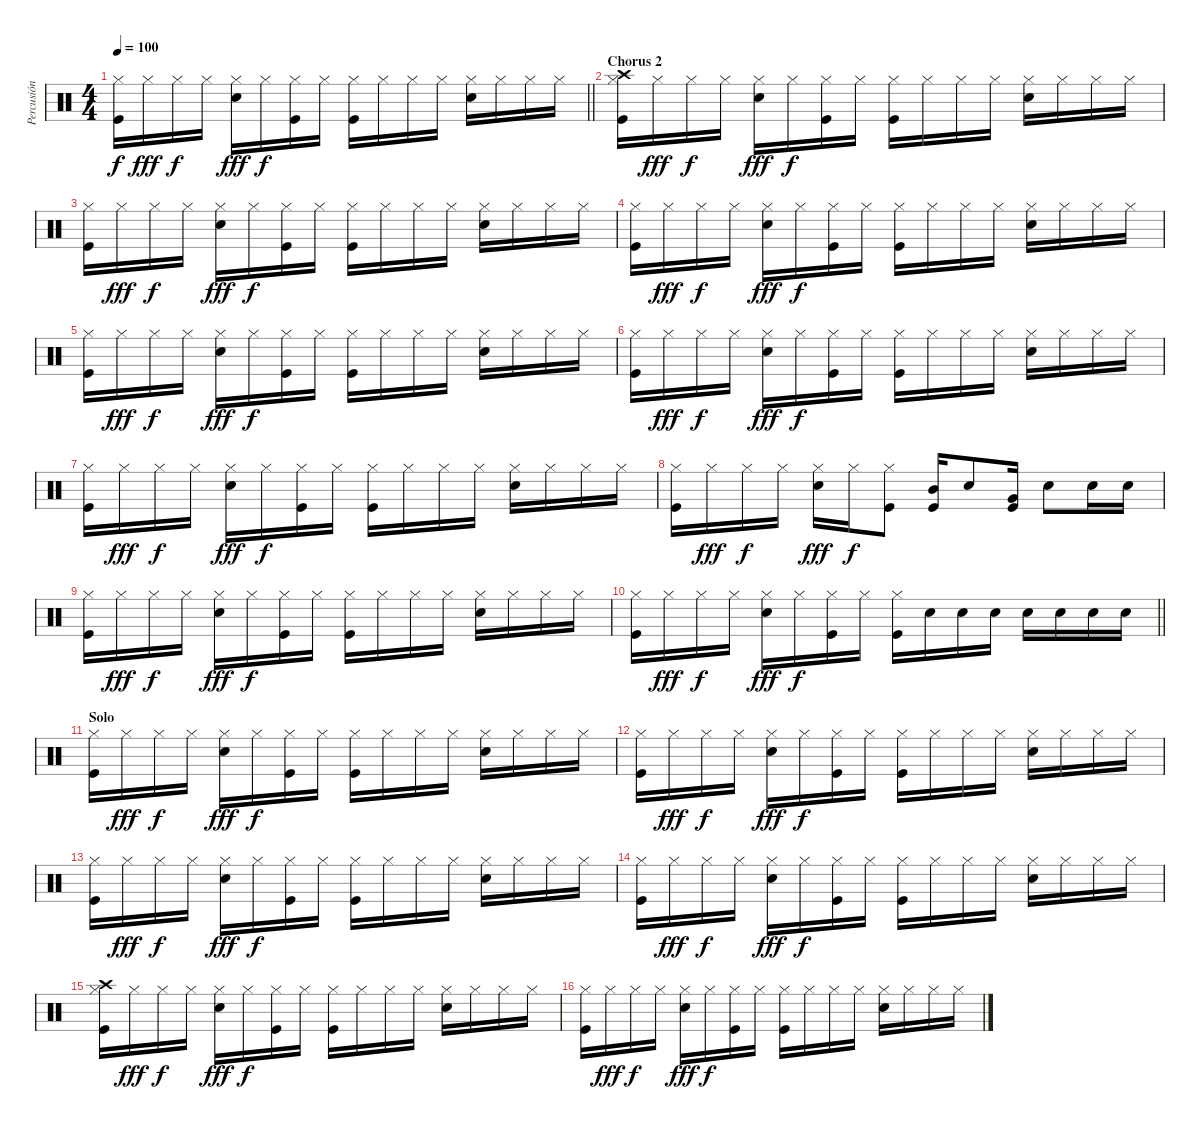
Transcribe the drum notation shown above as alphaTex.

\track ("Percusión" "Percusión") {instrument percussion}
\staff {score}
\articulation defaults
\ts (4 4)
\tempo 100
\clef neutral
\barLineRight lightlight
\ks c
("Hi-Hat (closed)" "Kick (hit)").16{dy f} "Hi-Hat (closed)".16{dy fff} "Hi-Hat (closed)".16{dy f} "Hi-Hat (closed)".16 ("Snare (hit) 2" "Hi-Hat (closed)").16{dy fff} "Hi-Hat (closed)".16{dy f} ("Hi-Hat (closed)" "Kick (hit)").16 "Hi-Hat (closed)".16 ("Kick (hit)" "Hi-Hat (closed)").16 "Hi-Hat (closed)".16 "Hi-Hat (closed)".16 "Hi-Hat (closed)".16 ("Snare (hit) 2" "Hi-Hat (closed)").16 "Hi-Hat (closed)".16 "Hi-Hat (closed)".16 "Hi-Hat (closed)".16 |
\section ("" "Chorus 2")
("Crash high (hit)" "Hi-Hat (closed)" "Kick (hit)").16 "Hi-Hat (closed)".16{dy fff} "Hi-Hat (closed)".16{dy f} "Hi-Hat (closed)".16 ("Snare (hit) 2" "Hi-Hat (closed)").16{dy fff} "Hi-Hat (closed)".16{dy f} ("Hi-Hat (closed)" "Kick (hit)").16 "Hi-Hat (closed)".16 ("Kick (hit)" "Hi-Hat (closed)").16 "Hi-Hat (closed)".16 "Hi-Hat (closed)".16 "Hi-Hat (closed)".16 ("Snare (hit) 2" "Hi-Hat (closed)").16 "Hi-Hat (closed)".16 "Hi-Hat (closed)".16 "Hi-Hat (closed)".16 |
("Hi-Hat (closed)" "Kick (hit)").16 "Hi-Hat (closed)".16{dy fff} "Hi-Hat (closed)".16{dy f} "Hi-Hat (closed)".16 ("Snare (hit) 2" "Hi-Hat (closed)").16{dy fff} "Hi-Hat (closed)".16{dy f} ("Hi-Hat (closed)" "Kick (hit)").16 "Hi-Hat (closed)".16 ("Kick (hit)" "Hi-Hat (closed)").16 "Hi-Hat (closed)".16 "Hi-Hat (closed)".16 "Hi-Hat (closed)".16 ("Snare (hit) 2" "Hi-Hat (closed)").16 "Hi-Hat (closed)".16 "Hi-Hat (closed)".16 "Hi-Hat (closed)".16 |
("Hi-Hat (closed)" "Kick (hit)").16 "Hi-Hat (closed)".16{dy fff} "Hi-Hat (closed)".16{dy f} "Hi-Hat (closed)".16 ("Snare (hit) 2" "Hi-Hat (closed)").16{dy fff} "Hi-Hat (closed)".16{dy f} ("Hi-Hat (closed)" "Kick (hit)").16 "Hi-Hat (closed)".16 ("Kick (hit)" "Hi-Hat (closed)").16 "Hi-Hat (closed)".16 "Hi-Hat (closed)".16 "Hi-Hat (closed)".16 ("Snare (hit) 2" "Hi-Hat (closed)").16 "Hi-Hat (closed)".16 "Hi-Hat (closed)".16 "Hi-Hat (closed)".16 |
("Hi-Hat (closed)" "Kick (hit)").16 "Hi-Hat (closed)".16{dy fff} "Hi-Hat (closed)".16{dy f} "Hi-Hat (closed)".16 ("Snare (hit) 2" "Hi-Hat (closed)").16{dy fff} "Hi-Hat (closed)".16{dy f} ("Hi-Hat (closed)" "Kick (hit)").16 "Hi-Hat (closed)".16 ("Kick (hit)" "Hi-Hat (closed)").16 "Hi-Hat (closed)".16 "Hi-Hat (closed)".16 "Hi-Hat (closed)".16 ("Snare (hit) 2" "Hi-Hat (closed)").16 "Hi-Hat (closed)".16 "Hi-Hat (closed)".16 "Hi-Hat (closed)".16 |
("Hi-Hat (closed)" "Kick (hit)").16 "Hi-Hat (closed)".16{dy fff} "Hi-Hat (closed)".16{dy f} "Hi-Hat (closed)".16 ("Snare (hit) 2" "Hi-Hat (closed)").16{dy fff} "Hi-Hat (closed)".16{dy f} ("Hi-Hat (closed)" "Kick (hit)").16 "Hi-Hat (closed)".16 ("Kick (hit)" "Hi-Hat (closed)").16 "Hi-Hat (closed)".16 "Hi-Hat (closed)".16 "Hi-Hat (closed)".16 ("Snare (hit) 2" "Hi-Hat (closed)").16 "Hi-Hat (closed)".16 "Hi-Hat (closed)".16 "Hi-Hat (closed)".16 |
("Hi-Hat (closed)" "Kick (hit)").16 "Hi-Hat (closed)".16{dy fff} "Hi-Hat (closed)".16{dy f} "Hi-Hat (closed)".16 ("Snare (hit) 2" "Hi-Hat (closed)").16{dy fff} "Hi-Hat (closed)".16{dy f} ("Hi-Hat (closed)" "Kick (hit)").16 "Hi-Hat (closed)".16 ("Kick (hit)" "Hi-Hat (closed)").16 "Hi-Hat (closed)".16 "Hi-Hat (closed)".16 "Hi-Hat (closed)".16 ("Snare (hit) 2" "Hi-Hat (closed)").16 "Hi-Hat (closed)".16 "Hi-Hat (closed)".16 "Hi-Hat (closed)".16 |
("Hi-Hat (closed)" "Kick (hit)").16 "Hi-Hat (closed)".16{dy fff} "Hi-Hat (closed)".16{dy f} "Hi-Hat (closed)".16 ("Snare (hit) 2" "Hi-Hat (closed)").16{dy fff} "Hi-Hat (closed)".16{dy f} ("Hi-Hat (closed)" "Kick (hit)").8 ("Mid Tom (hit)" "Kick (hit)").16 "Electric Snare (hit)".8 ("Very Low Tom (hit)" "Kick (hit)").16 "Electric Snare (hit)".8 "Snare (hit) 2".16 "Snare (hit) 2".16 |
("Hi-Hat (closed)" "Kick (hit)").16 "Hi-Hat (closed)".16{dy fff} "Hi-Hat (closed)".16{dy f} "Hi-Hat (closed)".16 ("Snare (hit) 2" "Hi-Hat (closed)").16{dy fff} "Hi-Hat (closed)".16{dy f} ("Hi-Hat (closed)" "Kick (hit)").16 "Hi-Hat (closed)".16 ("Kick (hit)" "Hi-Hat (closed)").16 "Hi-Hat (closed)".16 "Hi-Hat (closed)".16 "Hi-Hat (closed)".16 ("Snare (hit) 2" "Hi-Hat (closed)").16 "Hi-Hat (closed)".16 "Hi-Hat (closed)".16 "Hi-Hat (closed)".16 |
\barLineRight lightlight
("Hi-Hat (closed)" "Kick (hit)").16 "Hi-Hat (closed)".16{dy fff} "Hi-Hat (closed)".16{dy f} "Hi-Hat (closed)".16 ("Snare (hit) 2" "Hi-Hat (closed)").16{dy fff} "Hi-Hat (closed)".16{dy f} ("Hi-Hat (closed)" "Kick (hit)").16 "Hi-Hat (closed)".16 ("Kick (hit)" "Hi-Hat (closed)").16 "Electric Snare (hit)".16 "Electric Snare (hit)".16 "Electric Snare (hit)".16 "Electric Snare (hit)".16 "Snare (hit) 2".16 "Snare (hit) 2".16 "Snare (hit) 2".16 |
\section ("" "Solo")
("Hi-Hat (closed)" "Kick (hit)").16 "Hi-Hat (closed)".16{dy fff} "Hi-Hat (closed)".16{dy f} "Hi-Hat (closed)".16 ("Snare (hit) 2" "Hi-Hat (closed)").16{dy fff} "Hi-Hat (closed)".16{dy f} ("Hi-Hat (closed)" "Kick (hit)").16 "Hi-Hat (closed)".16 ("Kick (hit)" "Hi-Hat (closed)").16 "Hi-Hat (closed)".16 "Hi-Hat (closed)".16 "Hi-Hat (closed)".16 ("Snare (hit) 2" "Hi-Hat (closed)").16 "Hi-Hat (closed)".16 "Hi-Hat (closed)".16 "Hi-Hat (closed)".16 |
("Hi-Hat (closed)" "Kick (hit)").16 "Hi-Hat (closed)".16{dy fff} "Hi-Hat (closed)".16{dy f} "Hi-Hat (closed)".16 ("Snare (hit) 2" "Hi-Hat (closed)").16{dy fff} "Hi-Hat (closed)".16{dy f} ("Hi-Hat (closed)" "Kick (hit)").16 "Hi-Hat (closed)".16 ("Kick (hit)" "Hi-Hat (closed)").16 "Hi-Hat (closed)".16 "Hi-Hat (closed)".16 "Hi-Hat (closed)".16 ("Snare (hit) 2" "Hi-Hat (closed)").16 "Hi-Hat (closed)".16 "Hi-Hat (closed)".16 "Hi-Hat (closed)".16 |
("Hi-Hat (closed)" "Kick (hit)").16 "Hi-Hat (closed)".16{dy fff} "Hi-Hat (closed)".16{dy f} "Hi-Hat (closed)".16 ("Snare (hit) 2" "Hi-Hat (closed)").16{dy fff} "Hi-Hat (closed)".16{dy f} ("Hi-Hat (closed)" "Kick (hit)").16 "Hi-Hat (closed)".16 ("Kick (hit)" "Hi-Hat (closed)").16 "Hi-Hat (closed)".16 "Hi-Hat (closed)".16 "Hi-Hat (closed)".16 ("Snare (hit) 2" "Hi-Hat (closed)").16 "Hi-Hat (closed)".16 "Hi-Hat (closed)".16 "Hi-Hat (closed)".16 |
("Hi-Hat (closed)" "Kick (hit)").16 "Hi-Hat (closed)".16{dy fff} "Hi-Hat (closed)".16{dy f} "Hi-Hat (closed)".16 ("Snare (hit) 2" "Hi-Hat (closed)").16{dy fff} "Hi-Hat (closed)".16{dy f} ("Hi-Hat (closed)" "Kick (hit)").16 "Hi-Hat (closed)".16 ("Kick (hit)" "Hi-Hat (closed)").16 "Hi-Hat (closed)".16 "Hi-Hat (closed)".16 "Hi-Hat (closed)".16 ("Snare (hit) 2" "Hi-Hat (closed)").16 "Hi-Hat (closed)".16 "Hi-Hat (closed)".16 "Hi-Hat (closed)".16 |
("Crash high (hit)" "Hi-Hat (closed)" "Kick (hit)").16 "Hi-Hat (closed)".16{dy fff} "Hi-Hat (closed)".16{dy f} "Hi-Hat (closed)".16 ("Snare (hit) 2" "Hi-Hat (closed)").16{dy fff} "Hi-Hat (closed)".16{dy f} ("Hi-Hat (closed)" "Kick (hit)").16 "Hi-Hat (closed)".16 ("Kick (hit)" "Hi-Hat (closed)").16 "Hi-Hat (closed)".16 "Hi-Hat (closed)".16 "Hi-Hat (closed)".16 ("Snare (hit) 2" "Hi-Hat (closed)").16 "Hi-Hat (closed)".16 "Hi-Hat (closed)".16 "Hi-Hat (closed)".16 |
("Hi-Hat (closed)" "Kick (hit)").16 "Hi-Hat (closed)".16{dy fff} "Hi-Hat (closed)".16{dy f} "Hi-Hat (closed)".16 ("Snare (hit) 2" "Hi-Hat (closed)").16{dy fff} "Hi-Hat (closed)".16{dy f} ("Hi-Hat (closed)" "Kick (hit)").16 "Hi-Hat (closed)".16 ("Kick (hit)" "Hi-Hat (closed)").16 "Hi-Hat (closed)".16 "Hi-Hat (closed)".16 "Hi-Hat (closed)".16 ("Snare (hit) 2" "Hi-Hat (closed)").16 "Hi-Hat (closed)".16 "Hi-Hat (closed)".16 "Hi-Hat (closed)".16
